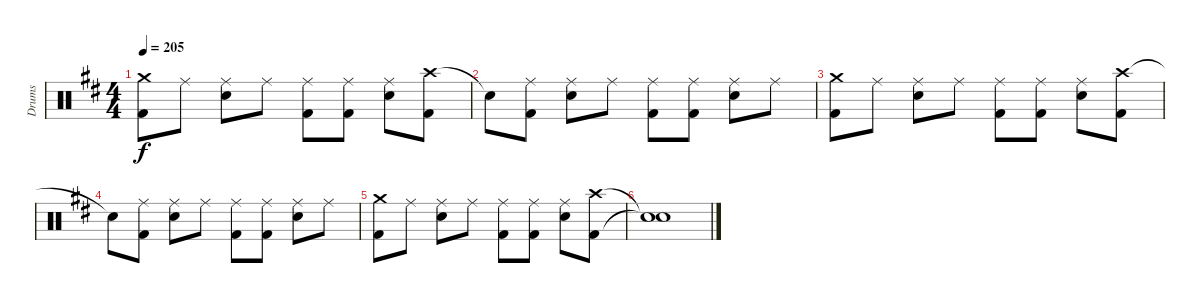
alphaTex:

\track ("Drums" "Drums") {instrument percussion}
\staff {score}
\articulation defaults
\ts (4 4)
\tempo 205
\clef neutral
\ks d
("Crash medium (hit)" "Kick (hit) 2").8{dy f} "Ride (middle)".8 ("Ride (middle)" "Snare (hit) 2").8 "Ride (middle)".8 ("Ride (middle)" "Kick (hit) 2").8 ("Ride (middle)" "Kick (hit) 2").8 ("Ride (middle)" "Snare (hit) 2").8 ("Crash high (hit)" "Kick (hit) 2").8 |
"Snare (hit)"{t}.8 ("Ride (middle)" "Kick (hit) 2").8 ("Ride (middle)" "Snare (hit) 2").8 "Ride (middle)".8 ("Ride (middle)" "Kick (hit) 2").8 ("Ride (middle)" "Kick (hit) 2").8 ("Ride (middle)" "Snare (hit) 2").8 "Ride (middle)".8 |
("Crash medium (hit)" "Kick (hit) 2").8 "Ride (middle)".8 ("Ride (middle)" "Snare (hit) 2").8 "Ride (middle)".8 ("Ride (middle)" "Kick (hit) 2").8 ("Ride (middle)" "Kick (hit) 2").8 ("Ride (middle)" "Snare (hit) 2").8 ("Crash high (hit)" "Kick (hit) 2").8 |
"Snare (hit)"{t}.8 ("Ride (middle)" "Kick (hit) 2").8 ("Ride (middle)" "Snare (hit) 2").8 "Ride (middle)".8 ("Ride (middle)" "Kick (hit) 2").8 ("Ride (middle)" "Kick (hit) 2").8 ("Ride (middle)" "Snare (hit) 2").8 "Ride (middle)".8 |
("Crash medium (hit)" "Kick (hit) 2").8 "Ride (middle)".8 ("Ride (middle)" "Snare (hit) 2").8 "Ride (middle)".8 ("Ride (middle)" "Kick (hit) 2").8 ("Ride (middle)" "Kick (hit) 2").8 ("Ride (middle)" "Snare (hit) 2").8 ("Crash high (hit)" "Kick (hit) 2").8 |
("Snare (hit)"{t} "Snare (hit)"{t}).1
